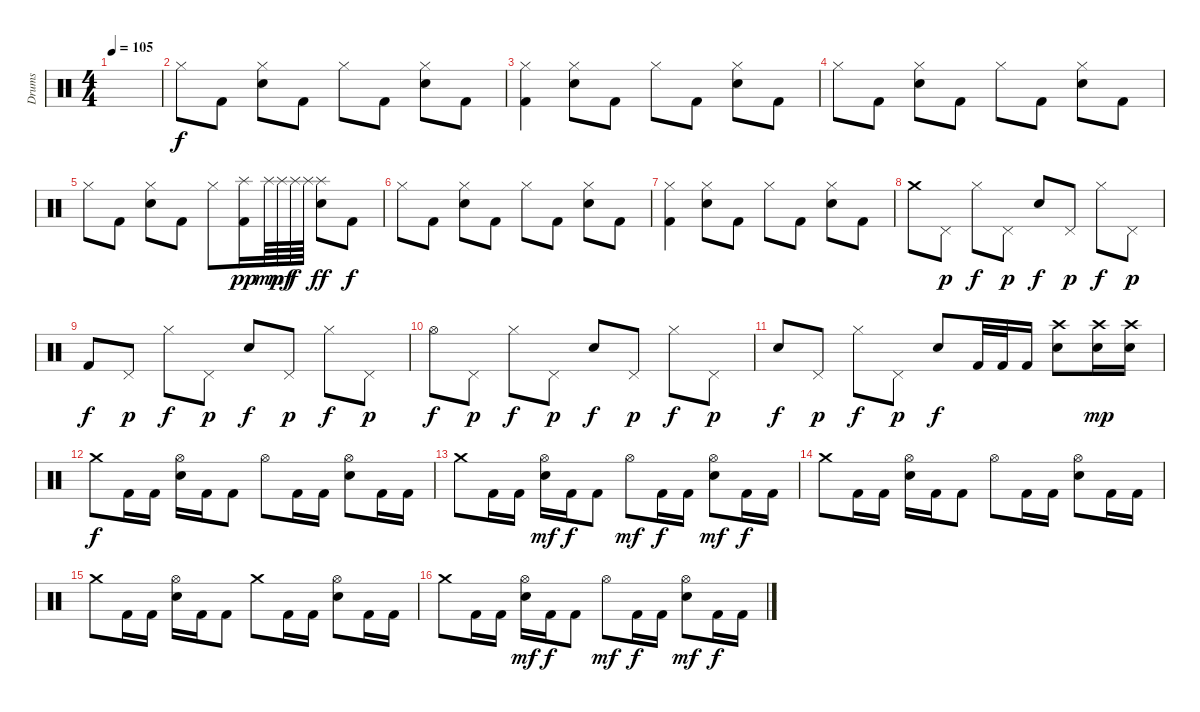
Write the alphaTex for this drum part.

\track ("Drums" "Drums") {instrument percussion}
\staff {score}
\articulation defaults
\ts (4 4)
\tempo 105
\clef neutral
\ks c
|
"Hi-Hat (closed)".8 "Kick (hit) 2".8 ("Electric Snare (hit)" "Hi-Hat (closed)").8 "Kick (hit) 2".8 "Hi-Hat (closed)".8 "Kick (hit) 2".8 ("Electric Snare (hit)" "Hi-Hat (closed)").8 "Kick (hit) 2".8 |
("Hi-Hat (closed)" "Kick (hit) 2").4 ("Electric Snare (hit)" "Hi-Hat (closed)").8 "Kick (hit) 2".8 "Hi-Hat (closed)".8 "Kick (hit) 2".8 ("Electric Snare (hit)" "Hi-Hat (closed)").8 "Kick (hit) 2".8 |
"Hi-Hat (closed)".8 "Kick (hit) 2".8 ("Electric Snare (hit)" "Hi-Hat (closed)").8 "Kick (hit) 2".8 "Hi-Hat (closed)".8 "Kick (hit) 2".8 ("Electric Snare (hit)" "Hi-Hat (closed)").8 "Kick (hit) 2".8 |
"Hi-Hat (closed)".8 "Kick (hit) 2".8 ("Electric Snare (hit)" "Hi-Hat (closed)").8 "Kick (hit) 2".8 "Hi-Hat (closed)".8 ("Splash (hit)" "Kick (hit) 2").16{dy pp} "Splash (hit)".64{dy mp} "Splash (hit)".64{dy mf} "Splash (hit)".64{dy f} "Splash (hit)".64 ("Splash (hit)" "Electric Snare (hit)").8{dy ff} "Kick (hit) 2".8{dy f} |
"Hi-Hat (closed)".8 "Kick (hit) 2".8 ("Electric Snare (hit)" "Hi-Hat (closed)").8 "Kick (hit) 2".8 "Hi-Hat (closed)".8 "Kick (hit) 2".8 ("Electric Snare (hit)" "Hi-Hat (closed)").8 "Kick (hit) 2".8 |
("Hi-Hat (closed)" "Kick (hit) 2").4 ("Electric Snare (hit)" "Hi-Hat (closed)").8 "Kick (hit) 2".8 "Hi-Hat (closed)".8 "Kick (hit) 2".8 ("Electric Snare (hit)" "Hi-Hat (closed)").8 "Kick (hit) 2".8 |
"Crash medium (hit)".8 "Pedal Hi-Hat (hit)".8{dy p} "Hi-Hat (closed)".8{dy f} "Pedal Hi-Hat (hit)".8{dy p} "Electric Snare (hit)".8{dy f} "Pedal Hi-Hat (hit)".8{dy p} "Hi-Hat (closed)".8{dy f} "Pedal Hi-Hat (hit)".8{dy p} |
"Kick (hit) 2".8{dy f} "Pedal Hi-Hat (hit)".8{dy p} "Hi-Hat (closed)".8{dy f} "Pedal Hi-Hat (hit)".8{dy p} "Electric Snare (hit)".8{dy f} "Pedal Hi-Hat (hit)".8{dy p} "Hi-Hat (closed)".8{dy f} "Pedal Hi-Hat (hit)".8{dy p} |
"Hi-Hat (open)".8{dy f} "Pedal Hi-Hat (hit)".8{dy p} "Hi-Hat (closed)".8{dy f} "Pedal Hi-Hat (hit)".8{dy p} "Electric Snare (hit)".8{dy f} "Pedal Hi-Hat (hit)".8{dy p} "Hi-Hat (closed)".8{dy f} "Pedal Hi-Hat (hit)".8{dy p} |
"Electric Snare (hit)".8{dy f} "Pedal Hi-Hat (hit)".8{dy p} "Hi-Hat (closed)".8{dy f} "Pedal Hi-Hat (hit)".8{dy p} "Electric Snare (hit)".8{dy f} "Kick (hit) 2".32 "Kick (hit) 2".32 "Kick (hit) 2".16 ("Crash high (hit)" "Electric Snare (hit)").8 ("Crash high (hit)" "Electric Snare (hit)").16{dy mp} ("Crash high (hit)" "Electric Snare (hit)").16 |
"Crash medium (hit)".8{dy f} "Kick (hit) 2".16 "Kick (hit) 2".16 ("Hi-Hat (open)" "Electric Snare (hit)").16 "Kick (hit) 2".16 "Kick (hit) 2".8 "Hi-Hat (open)".8 "Kick (hit) 2".16 "Kick (hit) 2".16 ("Hi-Hat (open)" "Electric Snare (hit)").8 "Kick (hit) 2".16 "Kick (hit) 2".16 |
"Crash medium (hit)".8 "Kick (hit) 2".16 "Kick (hit) 2".16 ("Hi-Hat (open)" "Electric Snare (hit)").16{dy mf} "Kick (hit) 2".16{dy f} "Kick (hit) 2".8 "Hi-Hat (open)".8{dy mf} "Kick (hit) 2".16{dy f} "Kick (hit) 2".16 ("Hi-Hat (open)" "Electric Snare (hit)").8{dy mf} "Kick (hit) 2".16{dy f} "Kick (hit) 2".16 |
"Crash medium (hit)".8 "Kick (hit) 2".16 "Kick (hit) 2".16 ("Hi-Hat (open)" "Electric Snare (hit)").16 "Kick (hit) 2".16 "Kick (hit) 2".8 "Hi-Hat (open)".8 "Kick (hit) 2".16 "Kick (hit) 2".16 ("Hi-Hat (open)" "Electric Snare (hit)").8 "Kick (hit) 2".16 "Kick (hit) 2".16 |
"Crash medium (hit)".8 "Kick (hit) 2".16 "Kick (hit) 2".16 ("Hi-Hat (open)" "Electric Snare (hit)").16 "Kick (hit) 2".16 "Kick (hit) 2".8 "Crash medium (hit)".8 "Kick (hit) 2".16 "Kick (hit) 2".16 ("Hi-Hat (open)" "Electric Snare (hit)").8 "Kick (hit) 2".16 "Kick (hit) 2".16 |
"Crash medium (hit)".8 "Kick (hit) 2".16 "Kick (hit) 2".16 ("Hi-Hat (open)" "Electric Snare (hit)").16{dy mf} "Kick (hit) 2".16{dy f} "Kick (hit) 2".8 "Hi-Hat (open)".8{dy mf} "Kick (hit) 2".16{dy f} "Kick (hit) 2".16 ("Hi-Hat (open)" "Electric Snare (hit)").8{dy mf} "Kick (hit) 2".16{dy f} "Kick (hit) 2".16
